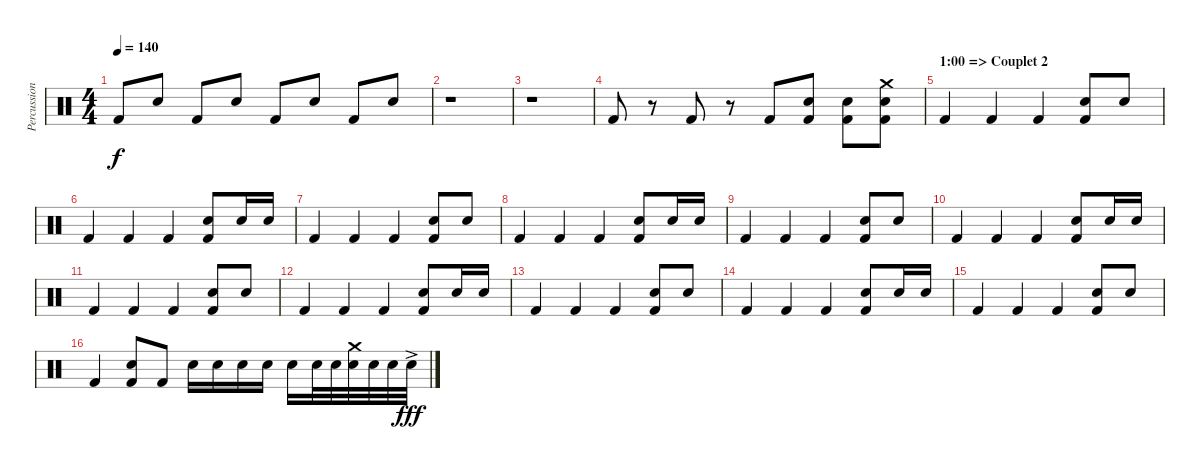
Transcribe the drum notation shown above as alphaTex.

\track ("Percussions" "Percussion") {instrument percussion}
\staff {score}
\articulation defaults
\ts (4 4)
\tempo 140
\clef neutral
\ks c "Kick (hit) 2".8{dy f} "Snare (hit) 2".8 "Kick (hit) 2".8 "Snare (hit) 2".8 "Kick (hit) 2".8 "Snare (hit) 2".8 "Kick (hit) 2".8 "Snare (hit) 2".8
|
r.1 |
r.1 |
"Kick (hit) 2".8 r.8 "Kick (hit) 2".8 r.8 "Kick (hit) 2".8 ("Snare (hit) 2" "Kick (hit) 2").8 ("Snare (hit) 2" "Kick (hit) 2").8 ("Crash medium (hit)" "Snare (hit) 2" "Kick (hit) 2").8 |
\section ("" "1:00 => Couplet 2 ")
"Kick (hit) 2".4 "Kick (hit) 2".4 "Kick (hit) 2".4 ("Electric Snare (hit)" "Kick (hit) 2").8 "Electric Snare (hit)".8 |
"Kick (hit) 2".4 "Kick (hit) 2".4 "Kick (hit) 2".4 ("Electric Snare (hit)" "Kick (hit) 2").8 "Electric Snare (hit)".16 "Electric Snare (hit)".16 |
"Kick (hit) 2".4 "Kick (hit) 2".4 "Kick (hit) 2".4 ("Electric Snare (hit)" "Kick (hit) 2").8 "Electric Snare (hit)".8 |
"Kick (hit) 2".4 "Kick (hit) 2".4 "Kick (hit) 2".4 ("Electric Snare (hit)" "Kick (hit) 2").8 "Electric Snare (hit)".16 "Electric Snare (hit)".16 |
"Kick (hit) 2".4 "Kick (hit) 2".4 "Kick (hit) 2".4 ("Electric Snare (hit)" "Kick (hit) 2").8 "Electric Snare (hit)".8 |
"Kick (hit) 2".4 "Kick (hit) 2".4 "Kick (hit) 2".4 ("Electric Snare (hit)" "Kick (hit) 2").8 "Electric Snare (hit)".16 "Electric Snare (hit)".16 |
"Kick (hit) 2".4 "Kick (hit) 2".4 "Kick (hit) 2".4 ("Electric Snare (hit)" "Kick (hit) 2").8 "Electric Snare (hit)".8 |
"Kick (hit) 2".4 "Kick (hit) 2".4 "Kick (hit) 2".4 ("Electric Snare (hit)" "Kick (hit) 2").8 "Electric Snare (hit)".16 "Electric Snare (hit)".16 |
"Kick (hit) 2".4 "Kick (hit) 2".4 "Kick (hit) 2".4 ("Electric Snare (hit)" "Kick (hit) 2").8 "Electric Snare (hit)".8 |
"Kick (hit) 2".4 "Kick (hit) 2".4 "Kick (hit) 2".4 ("Electric Snare (hit)" "Kick (hit) 2").8 "Electric Snare (hit)".16 "Electric Snare (hit)".16 |
"Kick (hit) 2".4 "Kick (hit) 2".4 "Kick (hit) 2".4 ("Electric Snare (hit)" "Kick (hit) 2").8 "Electric Snare (hit)".8 |
"Kick (hit) 2".4 ("Electric Snare (hit)" "Kick (hit) 2").8 "Kick (hit) 2".8 "Snare (hit) 2".16 "Snare (hit) 2".16 "Snare (hit) 2".16 "Snare (hit) 2".16 "Snare (hit) 2".16 "Snare (hit) 2".32 "Snare (hit) 2".32 ("Crash medium (hit)" "Snare (hit) 2").32 "Snare (hit) 2".32 "Snare (hit) 2".32 "Snare (hit) 2"{ac}.32{dy fff}
